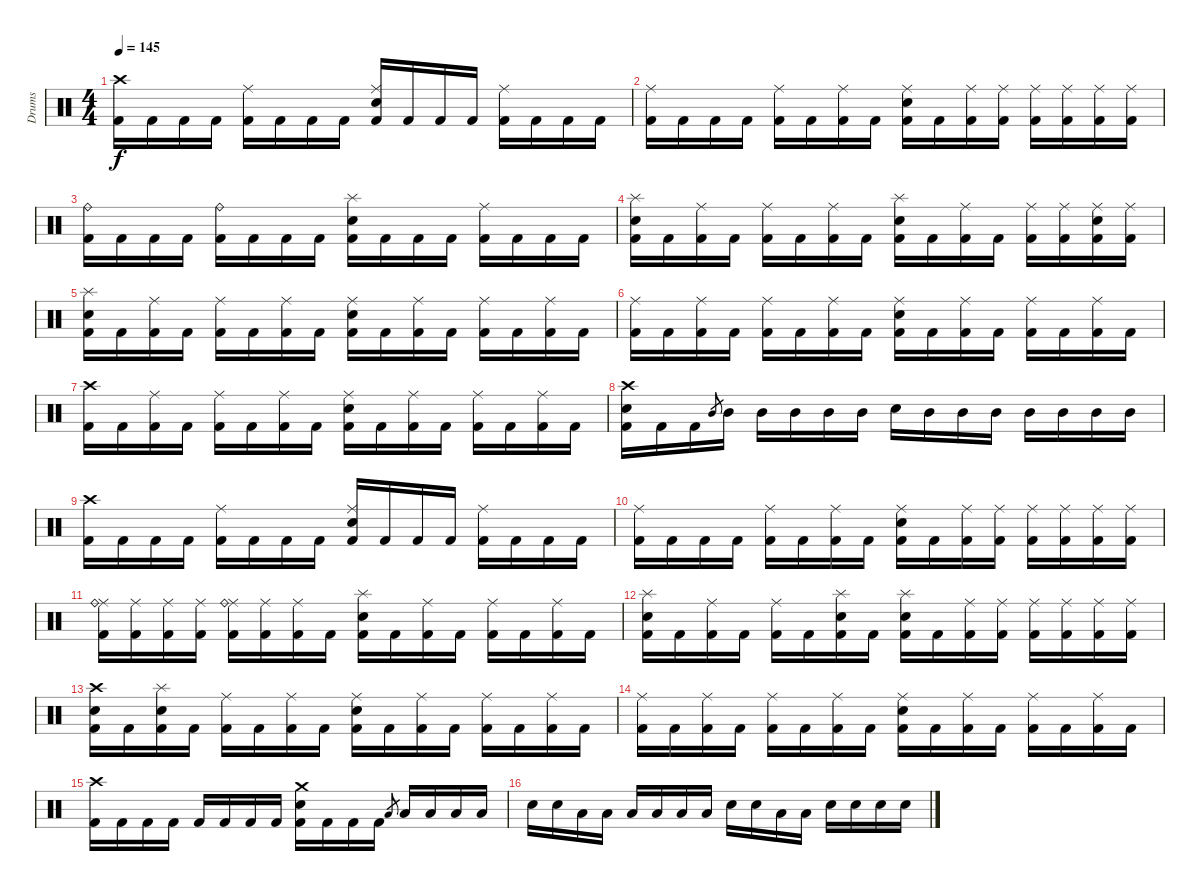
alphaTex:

\track ("Drums" "Drums") {instrument percussion}
\staff {score}
\articulation defaults
\ts (4 4)
\tempo 145
\clef neutral
\ks c
("Crash high (hit)" "Kick (hit) 2").16{dy f} "Kick (hit) 2".16 "Kick (hit) 2".16 "Kick (hit) 2".16 ("Ride (middle)" "Kick (hit) 2").16 "Kick (hit) 2".16 "Kick (hit) 2".16 "Kick (hit) 2".16 ("Ride (middle)" "Electric Snare (hit)" "Kick (hit) 2").16 "Kick (hit) 2".16 "Kick (hit) 2".16 "Kick (hit) 2".16 ("Ride (middle)" "Kick (hit) 2").16 "Kick (hit) 2".16 "Kick (hit) 2".16 "Kick (hit) 2".16 |
("Ride (middle)" "Kick (hit) 2").16 "Kick (hit) 2".16 "Kick (hit) 2".16 "Kick (hit) 2".16 ("Ride (middle)" "Kick (hit) 2").16 "Kick (hit) 2".16 ("Ride (middle)" "Kick (hit) 2").16 "Kick (hit) 2".16 ("Ride (middle)" "Electric Snare (hit)" "Kick (hit) 2").16 "Kick (hit) 2".16 ("Ride (middle)" "Kick (hit) 2").16 ("Ride (middle)" "Kick (hit) 2").16 ("Ride (middle)" "Kick (hit) 2").16 ("Ride (middle)" "Kick (hit) 2").16 ("Ride (middle)" "Kick (hit) 2").16 ("Ride (middle)" "Kick (hit) 2").16 |
("Ride (bell)" "Kick (hit) 2").16 "Kick (hit) 2".16 "Kick (hit) 2".16 "Kick (hit) 2".16 ("Ride (bell)" "Kick (hit) 2").16 "Kick (hit) 2".16 "Kick (hit) 2".16 "Kick (hit) 2".16 ("Splash (hit)" "Electric Snare (hit)" "Kick (hit) 2").16 "Kick (hit) 2".16 "Kick (hit) 2".16 "Kick (hit) 2".16 ("Ride (middle)" "Kick (hit) 2").16 "Kick (hit) 2".16 "Kick (hit) 2".16 "Kick (hit) 2".16 |
("Splash (hit)" "Electric Snare (hit)" "Kick (hit) 2").16 "Kick (hit) 2".16 ("Ride (middle)" "Kick (hit) 2").16 "Kick (hit) 2".16 ("Ride (middle)" "Kick (hit) 2").16 "Kick (hit) 2".16 ("Ride (middle)" "Kick (hit) 2").16 "Kick (hit) 2".16 ("Splash (hit)" "Electric Snare (hit)" "Kick (hit) 2").16 "Kick (hit) 2".16 ("Ride (middle)" "Kick (hit) 2").16 "Kick (hit) 2".16 ("Ride (middle)" "Kick (hit) 2").16 ("Ride (middle)" "Kick (hit) 2").16 ("Ride (middle)" "Electric Snare (hit)" "Kick (hit) 2").16 ("Ride (middle)" "Kick (hit) 2").16 |
("Splash (hit)" "Electric Snare (hit)" "Kick (hit) 2").16 "Kick (hit) 2".16 ("Ride (middle)" "Kick (hit) 2").16 "Kick (hit) 2".16 ("Ride (middle)" "Kick (hit) 2").16 "Kick (hit) 2".16 ("Ride (middle)" "Kick (hit) 2").16 "Kick (hit) 2".16 ("Ride (middle)" "Electric Snare (hit)" "Kick (hit) 2").16 "Kick (hit) 2".16 ("Ride (middle)" "Kick (hit) 2").16 "Kick (hit) 2".16 ("Ride (middle)" "Kick (hit) 2").16 "Kick (hit) 2".16 ("Ride (middle)" "Kick (hit) 2").16 "Kick (hit) 2".16 |
("Ride (middle)" "Kick (hit) 2").16 "Kick (hit) 2".16 ("Ride (middle)" "Kick (hit) 2").16 "Kick (hit) 2".16 ("Ride (middle)" "Kick (hit) 2").16 "Kick (hit) 2".16 ("Ride (middle)" "Kick (hit) 2").16 "Kick (hit) 2".16 ("Ride (middle)" "Electric Snare (hit)" "Kick (hit) 2").16 "Kick (hit) 2".16 ("Ride (middle)" "Kick (hit) 2").16 "Kick (hit) 2".16 ("Ride (middle)" "Kick (hit) 2").16 "Kick (hit) 2".16 ("Ride (middle)" "Kick (hit) 2").16 "Kick (hit) 2".16 |
("Crash high (hit)" "Kick (hit) 2").16 "Kick (hit) 2".16 ("Ride (middle)" "Kick (hit) 2").16 "Kick (hit) 2".16 ("Ride (middle)" "Kick (hit) 2").16 "Kick (hit) 2".16 ("Ride (middle)" "Kick (hit) 2").16 "Kick (hit) 2".16 ("Ride (middle)" "Electric Snare (hit)" "Kick (hit) 2").16 "Kick (hit) 2".16 ("Ride (middle)" "Kick (hit) 2").16 "Kick (hit) 2".16 ("Ride (middle)" "Kick (hit) 2").16 "Kick (hit) 2".16 ("Ride (middle)" "Kick (hit) 2").16 "Kick (hit) 2".16 |
("Crash high (hit)" "Electric Snare (hit)" "Kick (hit) 2").16 "Kick (hit) 2".16 "Kick (hit) 2".16 "Mid Tom (hit)".8{gr} "Mid Tom (hit)".16 "Mid Tom (hit)".16 "Mid Tom (hit)".16 "Mid Tom (hit)".16 "Mid Tom (hit)".16 "Electric Snare (hit)".16 "Mid Tom (hit)".16 "Mid Tom (hit)".16 "Mid Tom (hit)".16 "Mid Tom (hit)".16 "Mid Tom (hit)".16 "Mid Tom (hit)".16 "Mid Tom (hit)".16 |
("Crash high (hit)" "Kick (hit) 2").16 "Kick (hit) 2".16 "Kick (hit) 2".16 "Kick (hit) 2".16 ("Ride (middle)" "Kick (hit) 2").16 "Kick (hit) 2".16 "Kick (hit) 2".16 "Kick (hit) 2".16 ("Ride (middle)" "Electric Snare (hit)" "Kick (hit) 2").16 "Kick (hit) 2".16 "Kick (hit) 2".16 "Kick (hit) 2".16 ("Ride (middle)" "Kick (hit) 2").16 "Kick (hit) 2".16 "Kick (hit) 2".16 "Kick (hit) 2".16 |
("Ride (middle)" "Kick (hit) 2").16 "Kick (hit) 2".16 "Kick (hit) 2".16 "Kick (hit) 2".16 ("Ride (middle)" "Kick (hit) 2").16 "Kick (hit) 2".16 ("Ride (middle)" "Kick (hit) 2").16 "Kick (hit) 2".16 ("Ride (middle)" "Electric Snare (hit)" "Kick (hit) 2").16 "Kick (hit) 2".16 ("Ride (middle)" "Kick (hit) 2").16 ("Ride (middle)" "Kick (hit) 2").16 ("Ride (middle)" "Kick (hit) 2").16 ("Ride (middle)" "Kick (hit) 2").16 ("Ride (middle)" "Kick (hit) 2").16 ("Ride (middle)" "Kick (hit) 2").16 |
("Ride (middle)" "Ride (bell)" "Kick (hit) 2").16 ("Ride (middle)" "Kick (hit) 2").16 ("Ride (middle)" "Kick (hit) 2").16 ("Ride (middle)" "Kick (hit) 2").16 ("Ride (middle)" "Ride (bell)" "Kick (hit) 2").16 ("Ride (middle)" "Kick (hit) 2").16 ("Ride (middle)" "Kick (hit) 2").16 "Kick (hit) 2".16 ("Splash (hit)" "Electric Snare (hit)" "Kick (hit) 2").16 "Kick (hit) 2".16 ("Ride (middle)" "Kick (hit) 2").16 "Kick (hit) 2".16 ("Ride (middle)" "Kick (hit) 2").16 "Kick (hit) 2".16 ("Ride (middle)" "Kick (hit) 2").16 "Kick (hit) 2".16 |
("Splash (hit)" "Electric Snare (hit)" "Kick (hit) 2").16 "Kick (hit) 2".16 ("Ride (middle)" "Kick (hit) 2").16 "Kick (hit) 2".16 ("Ride (middle)" "Kick (hit) 2").16 "Kick (hit) 2".16 ("Splash (hit)" "Electric Snare (hit)" "Kick (hit) 2").16 "Kick (hit) 2".16 ("Splash (hit)" "Electric Snare (hit)" "Kick (hit) 2").16 "Kick (hit) 2".16 ("Ride (middle)" "Kick (hit) 2").16 ("Ride (middle)" "Kick (hit) 2").16 ("Ride (middle)" "Kick (hit) 2").16 ("Ride (middle)" "Kick (hit) 2").16 ("Ride (middle)" "Kick (hit) 2").16 ("Ride (middle)" "Kick (hit) 2").16 |
("Crash high (hit)" "Electric Snare (hit)" "Kick (hit) 2").16 "Kick (hit) 2".16 ("Splash (hit)" "Electric Snare (hit)" "Kick (hit) 2").16 "Kick (hit) 2".16 ("Ride (middle)" "Kick (hit) 2").16 "Kick (hit) 2".16 ("Ride (middle)" "Kick (hit) 2").16 "Kick (hit) 2".16 ("Ride (middle)" "Electric Snare (hit)" "Kick (hit) 2").16 "Kick (hit) 2".16 ("Ride (middle)" "Kick (hit) 2").16 "Kick (hit) 2".16 ("Ride (middle)" "Kick (hit) 2").16 "Kick (hit) 2".16 ("Ride (middle)" "Kick (hit) 2").16 "Kick (hit) 2".16 |
("Ride (middle)" "Kick (hit) 2").16 "Kick (hit) 2".16 ("Ride (middle)" "Kick (hit) 2").16 "Kick (hit) 2".16 ("Ride (middle)" "Kick (hit) 2").16 "Kick (hit) 2".16 ("Ride (middle)" "Kick (hit) 2").16 "Kick (hit) 2".16 ("Ride (middle)" "Electric Snare (hit)" "Kick (hit) 2").16 "Kick (hit) 2".16 ("Ride (middle)" "Kick (hit) 2").16 "Kick (hit) 2".16 ("Ride (middle)" "Kick (hit) 2").16 "Kick (hit) 2".16 ("Ride (middle)" "Kick (hit) 2").16 "Kick (hit) 2".16 |
("Crash high (hit)" "Kick (hit) 2").16 "Kick (hit) 2".16 "Kick (hit) 2".16 "Kick (hit) 2".16 "Kick (hit) 2".16 "Kick (hit) 2".16 "Kick (hit) 2".16 "Kick (hit) 2".16 ("Crash medium (hit)" "Electric Snare (hit)" "Kick (hit) 2").16 "Kick (hit) 2".16 "Kick (hit) 2".16 "Kick (hit) 2".16 "Low Tom (hit)".8{gr} "Low Tom (hit)".16 "Low Tom (hit)".16 "Low Tom (hit)".16 "Low Tom (hit)".16 |
"Electric Snare (hit)".16 "Electric Snare (hit)".16 "Low Tom (hit)".16 "Low Tom (hit)".16 "Low Tom (hit)".16 "Low Tom (hit)".16 "Low Tom (hit)".16 "Low Tom (hit)".16 "Electric Snare (hit)".16 "Electric Snare (hit)".16 "Low Tom (hit)".16 "Low Tom (hit)".16 "Electric Snare (hit)".16 "Electric Snare (hit)".16 "Electric Snare (hit)".16 "Electric Snare (hit)".16
